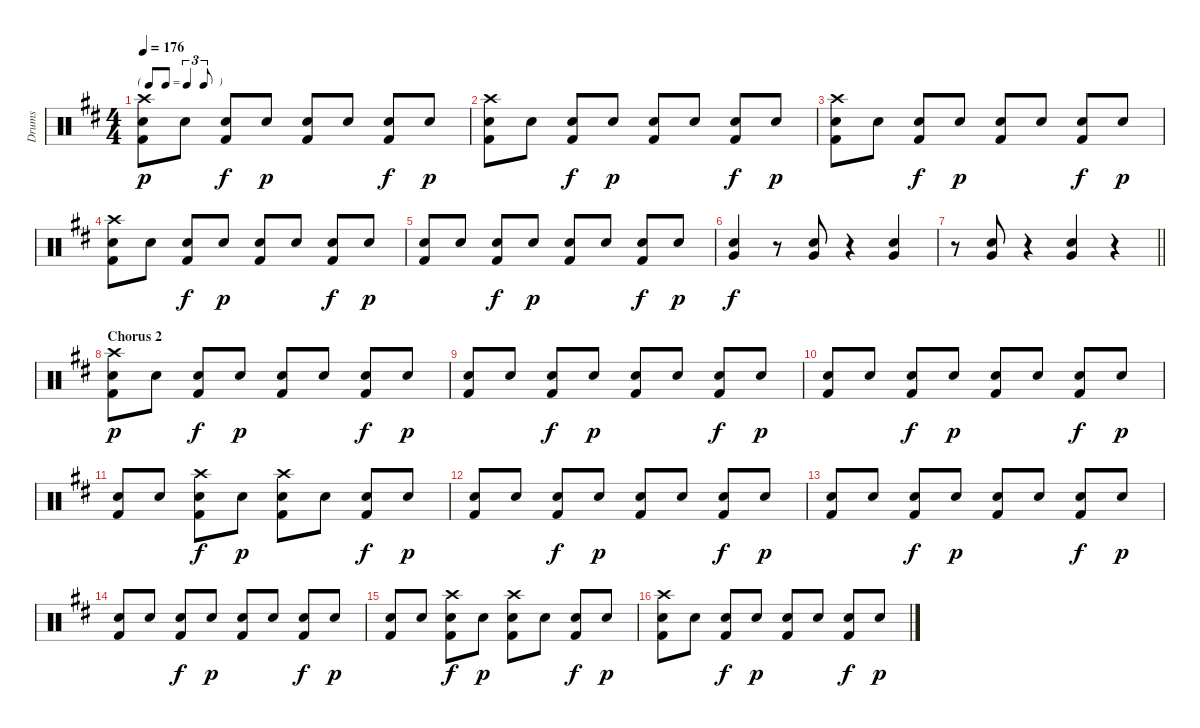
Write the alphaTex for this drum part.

\track ("Drums" "Drums") {instrument percussion}
\staff {score}
\articulation defaults
\ts (4 4)
\tf triplet8th
\tempo 176
\clef neutral
\ks d
("Crash high (hit)" "Snare (hit) 2" "Kick (hit) 2").8{dy p} "Snare (hit) 2".8 ("Snare (hit) 2" "Kick (hit) 2").8{dy f} "Snare (hit) 2".8{dy p} ("Snare (hit) 2" "Kick (hit) 2").8 "Snare (hit) 2".8 ("Snare (hit) 2" "Kick (hit) 2").8{dy f} "Snare (hit) 2".8{dy p} |
("Crash high (hit)" "Snare (hit) 2" "Kick (hit) 2").8 "Snare (hit) 2".8 ("Snare (hit) 2" "Kick (hit) 2").8{dy f} "Snare (hit) 2".8{dy p} ("Snare (hit) 2" "Kick (hit) 2").8 "Snare (hit) 2".8 ("Snare (hit) 2" "Kick (hit) 2").8{dy f} "Snare (hit) 2".8{dy p} |
("Crash high (hit)" "Snare (hit) 2" "Kick (hit) 2").8 "Snare (hit) 2".8 ("Snare (hit) 2" "Kick (hit) 2").8{dy f} "Snare (hit) 2".8{dy p} ("Snare (hit) 2" "Kick (hit) 2").8 "Snare (hit) 2".8 ("Snare (hit) 2" "Kick (hit) 2").8{dy f} "Snare (hit) 2".8{dy p} |
("Crash high (hit)" "Snare (hit) 2" "Kick (hit) 2").8 "Snare (hit) 2".8 ("Snare (hit) 2" "Kick (hit) 2").8{dy f} "Snare (hit) 2".8{dy p} ("Snare (hit) 2" "Kick (hit) 2").8 "Snare (hit) 2".8 ("Snare (hit) 2" "Kick (hit) 2").8{dy f} "Snare (hit) 2".8{dy p} |
("Snare (hit) 2" "Kick (hit) 2").8 "Snare (hit) 2".8 ("Snare (hit) 2" "Kick (hit) 2").8{dy f} "Snare (hit) 2".8{dy p} ("Snare (hit) 2" "Kick (hit) 2").8 "Snare (hit) 2".8 ("Snare (hit) 2" "Kick (hit) 2").8{dy f} "Snare (hit) 2".8{dy p} |
("Snare (hit) 2" "Very Low Tom (hit)").4{dy f} r.8 ("Snare (hit) 2" "Very Low Tom (hit)").8 r.4 ("Snare (hit) 2" "Very Low Tom (hit)").4 |
\barLineRight lightlight
r.8 ("Snare (hit) 2" "Very Low Tom (hit)").8 r.4 ("Snare (hit) 2" "Very Low Tom (hit)").4 r.4 |
\section ("" "Chorus 2")
("Crash high (hit)" "Snare (hit) 2" "Kick (hit) 2").8{dy p} "Snare (hit) 2".8 ("Snare (hit) 2" "Kick (hit) 2").8{dy f} "Snare (hit) 2".8{dy p} ("Snare (hit) 2" "Kick (hit) 2").8 "Snare (hit) 2".8 ("Snare (hit) 2" "Kick (hit) 2").8{dy f} "Snare (hit) 2".8{dy p} |
("Snare (hit) 2" "Kick (hit) 2").8 "Snare (hit) 2".8 ("Snare (hit) 2" "Kick (hit) 2").8{dy f} "Snare (hit) 2".8{dy p} ("Snare (hit) 2" "Kick (hit) 2").8 "Snare (hit) 2".8 ("Snare (hit) 2" "Kick (hit) 2").8{dy f} "Snare (hit) 2".8{dy p} |
("Snare (hit) 2" "Kick (hit) 2").8 "Snare (hit) 2".8 ("Snare (hit) 2" "Kick (hit) 2").8{dy f} "Snare (hit) 2".8{dy p} ("Snare (hit) 2" "Kick (hit) 2").8 "Snare (hit) 2".8 ("Snare (hit) 2" "Kick (hit) 2").8{dy f} "Snare (hit) 2".8{dy p} |
("Snare (hit) 2" "Kick (hit) 2").8 "Snare (hit) 2".8 ("Crash high (hit)" "Snare (hit) 2" "Kick (hit) 2").8{dy f} "Snare (hit) 2".8{dy p} ("Crash high (hit)" "Snare (hit) 2" "Kick (hit) 2").8 "Snare (hit) 2".8 ("Snare (hit) 2" "Kick (hit) 2").8{dy f} "Snare (hit) 2".8{dy p} |
("Snare (hit) 2" "Kick (hit) 2").8 "Snare (hit) 2".8 ("Snare (hit) 2" "Kick (hit) 2").8{dy f} "Snare (hit) 2".8{dy p} ("Snare (hit) 2" "Kick (hit) 2").8 "Snare (hit) 2".8 ("Snare (hit) 2" "Kick (hit) 2").8{dy f} "Snare (hit) 2".8{dy p} |
("Snare (hit) 2" "Kick (hit) 2").8 "Snare (hit) 2".8 ("Snare (hit) 2" "Kick (hit) 2").8{dy f} "Snare (hit) 2".8{dy p} ("Snare (hit) 2" "Kick (hit) 2").8 "Snare (hit) 2".8 ("Snare (hit) 2" "Kick (hit) 2").8{dy f} "Snare (hit) 2".8{dy p} |
("Snare (hit) 2" "Kick (hit) 2").8 "Snare (hit) 2".8 ("Snare (hit) 2" "Kick (hit) 2").8{dy f} "Snare (hit) 2".8{dy p} ("Snare (hit) 2" "Kick (hit) 2").8 "Snare (hit) 2".8 ("Snare (hit) 2" "Kick (hit) 2").8{dy f} "Snare (hit) 2".8{dy p} |
("Snare (hit) 2" "Kick (hit) 2").8 "Snare (hit) 2".8 ("Crash high (hit)" "Snare (hit) 2" "Kick (hit) 2").8{dy f} "Snare (hit) 2".8{dy p} ("Crash high (hit)" "Snare (hit) 2" "Kick (hit) 2").8 "Snare (hit) 2".8 ("Snare (hit) 2" "Kick (hit) 2").8{dy f} "Snare (hit) 2".8{dy p} |
("Crash high (hit)" "Snare (hit) 2" "Kick (hit) 2").8 "Snare (hit) 2".8 ("Snare (hit) 2" "Kick (hit) 2").8{dy f} "Snare (hit) 2".8{dy p} ("Snare (hit) 2" "Kick (hit) 2").8 "Snare (hit) 2".8 ("Snare (hit) 2" "Kick (hit) 2").8{dy f} "Snare (hit) 2".8{dy p}
